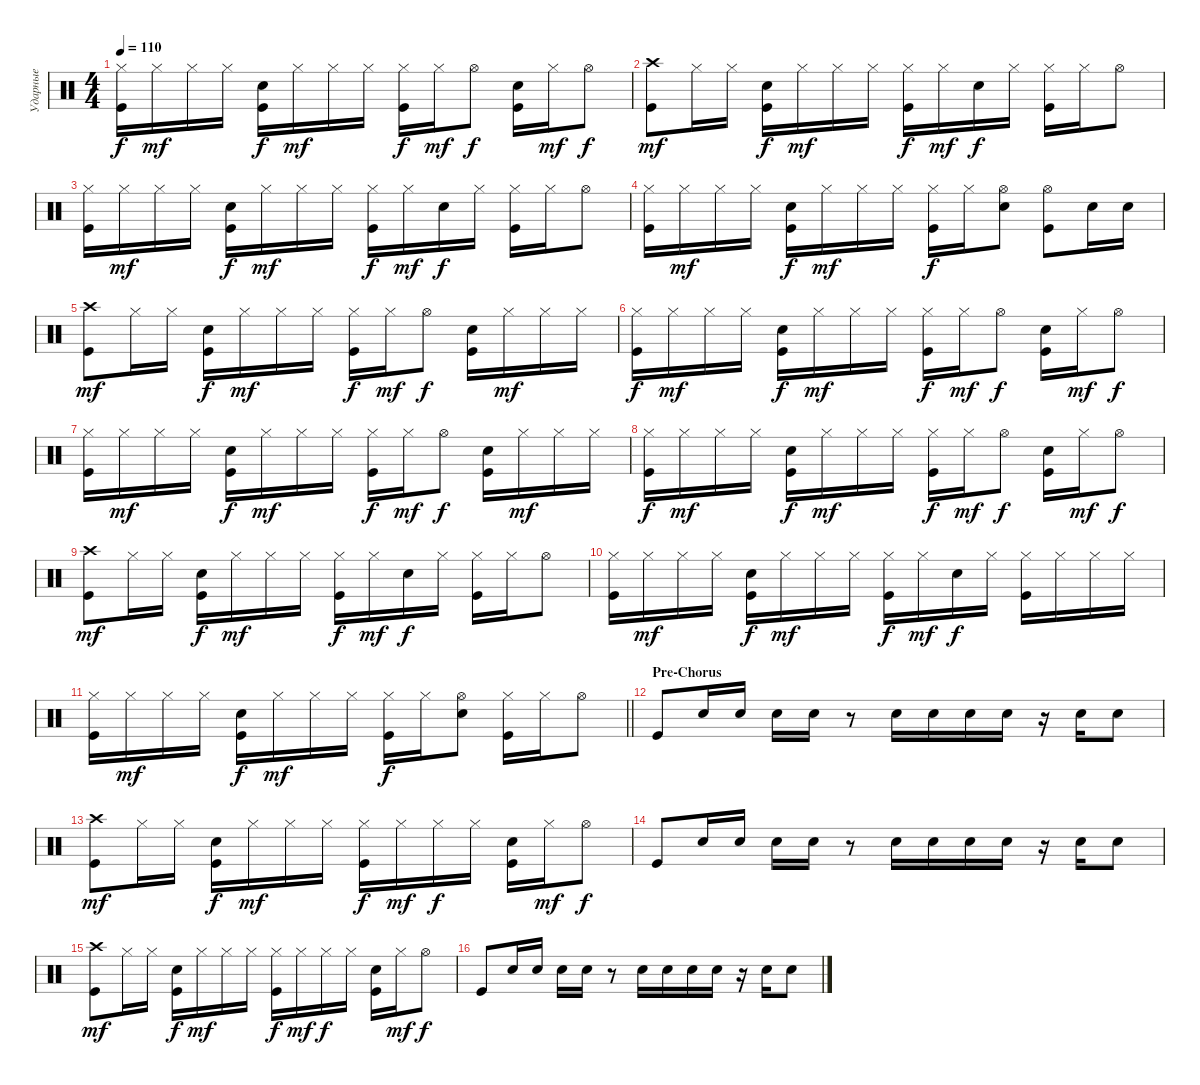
\track ("Ударные" "Ударные") {instrument percussion}
\staff {score}
\articulation defaults
\ts (4 4)
\tempo 110
\clef neutral
\ks c
("Hi-Hat (closed)" "Kick (hit)").16{dy f} "Hi-Hat (closed)".16{dy mf} "Hi-Hat (closed)".16 "Hi-Hat (closed)".16 ("Snare (hit) 2" "Kick (hit)").16{dy f} "Hi-Hat (closed)".16{dy mf} "Hi-Hat (closed)".16 "Hi-Hat (closed)".16 ("Hi-Hat (closed)" "Kick (hit)").16{dy f} "Hi-Hat (closed)".16{dy mf} "Hi-Hat (open)".8{dy f} ("Kick (hit)" "Snare (hit) 2").16 "Hi-Hat (closed)".16{dy mf} "Hi-Hat (open)".8{dy f} |
("Crash high (hit)" "Kick (hit)").8{dy mf} "Hi-Hat (closed)".16 "Hi-Hat (closed)".16 ("Snare (hit) 2" "Kick (hit)").16{dy f} "Hi-Hat (closed)".16{dy mf} "Hi-Hat (closed)".16 "Hi-Hat (closed)".16 ("Hi-Hat (closed)" "Kick (hit)").16{dy f} "Hi-Hat (closed)".16{dy mf} "Snare (hit) 2".16{dy f} "Hi-Hat (closed)".16 ("Hi-Hat (closed)" "Kick (hit)").16 "Hi-Hat (closed)".16 "Hi-Hat (open)".8 |
("Hi-Hat (closed)" "Kick (hit)").16 "Hi-Hat (closed)".16{dy mf} "Hi-Hat (closed)".16 "Hi-Hat (closed)".16 ("Snare (hit) 2" "Kick (hit)").16{dy f} "Hi-Hat (closed)".16{dy mf} "Hi-Hat (closed)".16 "Hi-Hat (closed)".16 ("Hi-Hat (closed)" "Kick (hit)").16{dy f} "Hi-Hat (closed)".16{dy mf} "Snare (hit) 2".16{dy f} "Hi-Hat (closed)".16 ("Hi-Hat (closed)" "Kick (hit)").16 "Hi-Hat (closed)".16 "Hi-Hat (open)".8 |
("Hi-Hat (closed)" "Kick (hit)").16 "Hi-Hat (closed)".16{dy mf} "Hi-Hat (closed)".16 "Hi-Hat (closed)".16 ("Snare (hit) 2" "Kick (hit)").16{dy f} "Hi-Hat (closed)".16{dy mf} "Hi-Hat (closed)".16 "Hi-Hat (closed)".16 ("Kick (hit)" "Hi-Hat (closed)").16{dy f} "Hi-Hat (closed)".16 ("Snare (hit) 2" "Hi-Hat (open)").8 ("Kick (hit)" "Hi-Hat (open)").8 "Snare (hit) 2".16 "Snare (hit) 2".16 |
("Crash high (hit)" "Kick (hit)").8{dy mf} "Hi-Hat (closed)".16 "Hi-Hat (closed)".16 ("Snare (hit) 2" "Kick (hit)").16{dy f} "Hi-Hat (closed)".16{dy mf} "Hi-Hat (closed)".16 "Hi-Hat (closed)".16 ("Hi-Hat (closed)" "Kick (hit)").16{dy f} "Hi-Hat (closed)".16{dy mf} "Hi-Hat (open)".8{dy f} ("Kick (hit)" "Snare (hit) 2").16 "Hi-Hat (closed)".16{dy mf} "Hi-Hat (closed)".16 "Hi-Hat (closed)".16 |
("Hi-Hat (closed)" "Kick (hit)").16{dy f} "Hi-Hat (closed)".16{dy mf} "Hi-Hat (closed)".16 "Hi-Hat (closed)".16 ("Snare (hit) 2" "Kick (hit)").16{dy f} "Hi-Hat (closed)".16{dy mf} "Hi-Hat (closed)".16 "Hi-Hat (closed)".16 ("Hi-Hat (closed)" "Kick (hit)").16{dy f} "Hi-Hat (closed)".16{dy mf} "Hi-Hat (open)".8{dy f} ("Kick (hit)" "Snare (hit) 2").16 "Hi-Hat (closed)".16{dy mf} "Hi-Hat (open)".8{dy f} |
("Hi-Hat (closed)" "Kick (hit)").16 "Hi-Hat (closed)".16{dy mf} "Hi-Hat (closed)".16 "Hi-Hat (closed)".16 ("Snare (hit) 2" "Kick (hit)").16{dy f} "Hi-Hat (closed)".16{dy mf} "Hi-Hat (closed)".16 "Hi-Hat (closed)".16 ("Hi-Hat (closed)" "Kick (hit)").16{dy f} "Hi-Hat (closed)".16{dy mf} "Hi-Hat (open)".8{dy f} ("Kick (hit)" "Snare (hit) 2").16 "Hi-Hat (closed)".16{dy mf} "Hi-Hat (closed)".16 "Hi-Hat (closed)".16 |
("Hi-Hat (closed)" "Kick (hit)").16{dy f} "Hi-Hat (closed)".16{dy mf} "Hi-Hat (closed)".16 "Hi-Hat (closed)".16 ("Snare (hit) 2" "Kick (hit)").16{dy f} "Hi-Hat (closed)".16{dy mf} "Hi-Hat (closed)".16 "Hi-Hat (closed)".16 ("Hi-Hat (closed)" "Kick (hit)").16{dy f} "Hi-Hat (closed)".16{dy mf} "Hi-Hat (open)".8{dy f} ("Kick (hit)" "Snare (hit) 2").16 "Hi-Hat (closed)".16{dy mf} "Hi-Hat (open)".8{dy f} |
("Crash high (hit)" "Kick (hit)").8{dy mf} "Hi-Hat (closed)".16 "Hi-Hat (closed)".16 ("Snare (hit) 2" "Kick (hit)").16{dy f} "Hi-Hat (closed)".16{dy mf} "Hi-Hat (closed)".16 "Hi-Hat (closed)".16 ("Hi-Hat (closed)" "Kick (hit)").16{dy f} "Hi-Hat (closed)".16{dy mf} "Snare (hit) 2".16{dy f} "Hi-Hat (closed)".16 ("Hi-Hat (closed)" "Kick (hit)").16 "Hi-Hat (closed)".16 "Hi-Hat (open)".8 |
("Hi-Hat (closed)" "Kick (hit)").16 "Hi-Hat (closed)".16{dy mf} "Hi-Hat (closed)".16 "Hi-Hat (closed)".16 ("Snare (hit) 2" "Kick (hit)").16{dy f} "Hi-Hat (closed)".16{dy mf} "Hi-Hat (closed)".16 "Hi-Hat (closed)".16 ("Hi-Hat (closed)" "Kick (hit)").16{dy f} "Hi-Hat (closed)".16{dy mf} "Snare (hit) 2".16{dy f} "Hi-Hat (closed)".16 ("Hi-Hat (closed)" "Kick (hit)").16 "Hi-Hat (closed)".16 "Hi-Hat (closed)".16 "Hi-Hat (closed)".16 |
\barLineRight lightlight
("Hi-Hat (closed)" "Kick (hit)").16 "Hi-Hat (closed)".16{dy mf} "Hi-Hat (closed)".16 "Hi-Hat (closed)".16 ("Snare (hit) 2" "Kick (hit)").16{dy f} "Hi-Hat (closed)".16{dy mf} "Hi-Hat (closed)".16 "Hi-Hat (closed)".16 ("Kick (hit)" "Hi-Hat (closed)").16{dy f} "Hi-Hat (closed)".16 ("Snare (hit) 2" "Hi-Hat (open)").8 ("Kick (hit)" "Hi-Hat (closed)").16 "Hi-Hat (closed)".16 "Hi-Hat (open)".8 |
\section ("" "Pre-Chorus")
"Kick (hit)".8 "Snare (hit) 2".16 "Snare (hit) 2".16 "Snare (hit) 2".16 "Snare (hit) 2".16 r.8 "Snare (hit) 2".16 "Snare (hit) 2".16 "Snare (hit) 2".16 "Snare (hit) 2".16 r.16 "Snare (hit) 2".16 "Snare (hit) 2".8 |
("Crash high (hit)" "Kick (hit)").8{dy mf} "Hi-Hat (closed)".16 "Hi-Hat (closed)".16 ("Snare (hit) 2" "Kick (hit)").16{dy f} "Hi-Hat (closed)".16{dy mf} "Hi-Hat (closed)".16 "Hi-Hat (closed)".16 ("Hi-Hat (closed)" "Kick (hit)").16{dy f} "Hi-Hat (closed)".16{dy mf} "Hi-Hat (closed)".16{dy f} "Hi-Hat (closed)".16 ("Kick (hit)" "Snare (hit) 2").16 "Hi-Hat (closed)".16{dy mf} "Hi-Hat (open)".8{dy f} |
"Kick (hit)".8 "Snare (hit) 2".16 "Snare (hit) 2".16 "Snare (hit) 2".16 "Snare (hit) 2".16 r.8 "Snare (hit) 2".16 "Snare (hit) 2".16 "Snare (hit) 2".16 "Snare (hit) 2".16 r.16 "Snare (hit) 2".16 "Snare (hit) 2".8 |
("Crash high (hit)" "Kick (hit)").8{dy mf} "Hi-Hat (closed)".16 "Hi-Hat (closed)".16 ("Snare (hit) 2" "Kick (hit)").16{dy f} "Hi-Hat (closed)".16{dy mf} "Hi-Hat (closed)".16 "Hi-Hat (closed)".16 ("Hi-Hat (closed)" "Kick (hit)").16{dy f} "Hi-Hat (closed)".16{dy mf} "Hi-Hat (closed)".16{dy f} "Hi-Hat (closed)".16 ("Kick (hit)" "Snare (hit) 2").16 "Hi-Hat (closed)".16{dy mf} "Hi-Hat (open)".8{dy f} |
"Kick (hit)".8 "Snare (hit) 2".16 "Snare (hit) 2".16 "Snare (hit) 2".16 "Snare (hit) 2".16 r.8 "Snare (hit) 2".16 "Snare (hit) 2".16 "Snare (hit) 2".16 "Snare (hit) 2".16 r.16 "Snare (hit) 2".16 "Snare (hit) 2".8
